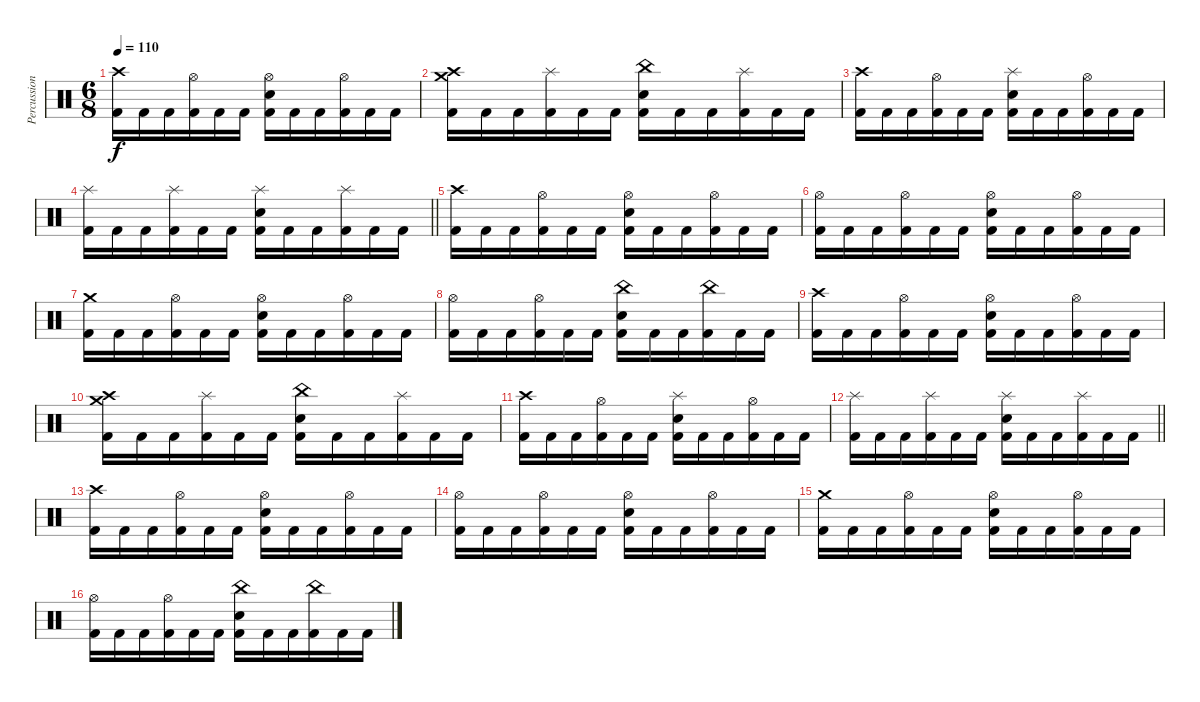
\track ("Percussion" "Percussion") {instrument percussion}
\staff {score}
\articulation defaults
\ts (6 8)
\tempo 110
\clef neutral
\ks c
("Crash high (hit)" "Kick (hit) 2").16{dy f} "Kick (hit) 2".16 "Kick (hit) 2".16 ("Hi-Hat (open)" "Kick (hit) 2").16 "Kick (hit) 2".16 "Kick (hit) 2".16 ("Hi-Hat (open)" "Electric Snare (hit)" "Kick (hit) 2").16 "Kick (hit) 2".16 "Kick (hit) 2".16 ("Hi-Hat (open)" "Kick (hit) 2").16 "Kick (hit) 2".16 "Kick (hit) 2".16 |
("Crash high (hit)" "Crash medium (hit)" "Kick (hit) 2").16 "Kick (hit) 2".16 "Kick (hit) 2".16 ("Splash (hit)" "Kick (hit) 2").16 "Kick (hit) 2".16 "Kick (hit) 2".16 ("China (hit)" "Electric Snare (hit)" "Kick (hit) 2").16 "Kick (hit) 2".16 "Kick (hit) 2".16 ("Splash (hit)" "Kick (hit) 2").16 "Kick (hit) 2".16 "Kick (hit) 2".16 |
("Crash high (hit)" "Kick (hit) 2").16 "Kick (hit) 2".16 "Kick (hit) 2".16 ("Hi-Hat (open)" "Kick (hit) 2").16 "Kick (hit) 2".16 "Kick (hit) 2".16 ("Splash (hit)" "Electric Snare (hit)" "Kick (hit) 2").16 "Kick (hit) 2".16 "Kick (hit) 2".16 ("Hi-Hat (open)" "Kick (hit) 2").16 "Kick (hit) 2".16 "Kick (hit) 2".16 |
\barLineRight lightlight
("Splash (hit)" "Kick (hit) 2").16 "Kick (hit) 2".16 "Kick (hit) 2".16 ("Splash (hit)" "Kick (hit) 2").16 "Kick (hit) 2".16 "Kick (hit) 2".16 ("Splash (hit)" "Electric Snare (hit)" "Kick (hit) 2").16 "Kick (hit) 2".16 "Kick (hit) 2".16 ("Splash (hit)" "Kick (hit) 2").16 "Kick (hit) 2".16 "Kick (hit) 2".16 |
("Crash high (hit)" "Kick (hit) 2").16 "Kick (hit) 2".16 "Kick (hit) 2".16 ("Hi-Hat (open)" "Kick (hit) 2").16 "Kick (hit) 2".16 "Kick (hit) 2".16 ("Hi-Hat (open)" "Electric Snare (hit)" "Kick (hit) 2").16 "Kick (hit) 2".16 "Kick (hit) 2".16 ("Hi-Hat (open)" "Kick (hit) 2").16 "Kick (hit) 2".16 "Kick (hit) 2".16 |
("Hi-Hat (open)" "Kick (hit) 2").16 "Kick (hit) 2".16 "Kick (hit) 2".16 ("Hi-Hat (open)" "Kick (hit) 2").16 "Kick (hit) 2".16 "Kick (hit) 2".16 ("Hi-Hat (open)" "Electric Snare (hit)" "Kick (hit) 2").16 "Kick (hit) 2".16 "Kick (hit) 2".16 ("Hi-Hat (open)" "Kick (hit) 2").16 "Kick (hit) 2".16 "Kick (hit) 2".16 |
("Crash medium (hit)" "Kick (hit) 2").16 "Kick (hit) 2".16 "Kick (hit) 2".16 ("Hi-Hat (open)" "Kick (hit) 2").16 "Kick (hit) 2".16 "Kick (hit) 2".16 ("Hi-Hat (open)" "Electric Snare (hit)" "Kick (hit) 2").16 "Kick (hit) 2".16 "Kick (hit) 2".16 ("Hi-Hat (open)" "Kick (hit) 2").16 "Kick (hit) 2".16 "Kick (hit) 2".16 |
("Hi-Hat (open)" "Kick (hit) 2").16 "Kick (hit) 2".16 "Kick (hit) 2".16 ("Hi-Hat (open)" "Kick (hit) 2").16 "Kick (hit) 2".16 "Kick (hit) 2".16 ("China (hit)" "Electric Snare (hit)" "Kick (hit) 2").16 "Kick (hit) 2".16 "Kick (hit) 2".16 ("China (hit)" "Kick (hit) 2").16 "Kick (hit) 2".16 "Kick (hit) 2".16 |
("Crash high (hit)" "Kick (hit) 2").16 "Kick (hit) 2".16 "Kick (hit) 2".16 ("Hi-Hat (open)" "Kick (hit) 2").16 "Kick (hit) 2".16 "Kick (hit) 2".16 ("Hi-Hat (open)" "Electric Snare (hit)" "Kick (hit) 2").16 "Kick (hit) 2".16 "Kick (hit) 2".16 ("Hi-Hat (open)" "Kick (hit) 2").16 "Kick (hit) 2".16 "Kick (hit) 2".16 |
("Crash high (hit)" "Crash medium (hit)" "Kick (hit) 2").16 "Kick (hit) 2".16 "Kick (hit) 2".16 ("Splash (hit)" "Kick (hit) 2").16 "Kick (hit) 2".16 "Kick (hit) 2".16 ("China (hit)" "Electric Snare (hit)" "Kick (hit) 2").16 "Kick (hit) 2".16 "Kick (hit) 2".16 ("Splash (hit)" "Kick (hit) 2").16 "Kick (hit) 2".16 "Kick (hit) 2".16 |
("Crash high (hit)" "Kick (hit) 2").16 "Kick (hit) 2".16 "Kick (hit) 2".16 ("Hi-Hat (open)" "Kick (hit) 2").16 "Kick (hit) 2".16 "Kick (hit) 2".16 ("Splash (hit)" "Electric Snare (hit)" "Kick (hit) 2").16 "Kick (hit) 2".16 "Kick (hit) 2".16 ("Hi-Hat (open)" "Kick (hit) 2").16 "Kick (hit) 2".16 "Kick (hit) 2".16 |
\barLineRight lightlight
("Splash (hit)" "Kick (hit) 2").16 "Kick (hit) 2".16 "Kick (hit) 2".16 ("Splash (hit)" "Kick (hit) 2").16 "Kick (hit) 2".16 "Kick (hit) 2".16 ("Splash (hit)" "Electric Snare (hit)" "Kick (hit) 2").16 "Kick (hit) 2".16 "Kick (hit) 2".16 ("Splash (hit)" "Kick (hit) 2").16 "Kick (hit) 2".16 "Kick (hit) 2".16 |
("Crash high (hit)" "Kick (hit) 2").16 "Kick (hit) 2".16 "Kick (hit) 2".16 ("Hi-Hat (open)" "Kick (hit) 2").16 "Kick (hit) 2".16 "Kick (hit) 2".16 ("Hi-Hat (open)" "Electric Snare (hit)" "Kick (hit) 2").16 "Kick (hit) 2".16 "Kick (hit) 2".16 ("Hi-Hat (open)" "Kick (hit) 2").16 "Kick (hit) 2".16 "Kick (hit) 2".16 |
("Hi-Hat (open)" "Kick (hit) 2").16 "Kick (hit) 2".16 "Kick (hit) 2".16 ("Hi-Hat (open)" "Kick (hit) 2").16 "Kick (hit) 2".16 "Kick (hit) 2".16 ("Hi-Hat (open)" "Electric Snare (hit)" "Kick (hit) 2").16 "Kick (hit) 2".16 "Kick (hit) 2".16 ("Hi-Hat (open)" "Kick (hit) 2").16 "Kick (hit) 2".16 "Kick (hit) 2".16 |
("Crash medium (hit)" "Kick (hit) 2").16 "Kick (hit) 2".16 "Kick (hit) 2".16 ("Hi-Hat (open)" "Kick (hit) 2").16 "Kick (hit) 2".16 "Kick (hit) 2".16 ("Hi-Hat (open)" "Electric Snare (hit)" "Kick (hit) 2").16 "Kick (hit) 2".16 "Kick (hit) 2".16 ("Hi-Hat (open)" "Kick (hit) 2").16 "Kick (hit) 2".16 "Kick (hit) 2".16 |
("Hi-Hat (open)" "Kick (hit) 2").16 "Kick (hit) 2".16 "Kick (hit) 2".16 ("Hi-Hat (open)" "Kick (hit) 2").16 "Kick (hit) 2".16 "Kick (hit) 2".16 ("China (hit)" "Electric Snare (hit)" "Kick (hit) 2").16 "Kick (hit) 2".16 "Kick (hit) 2".16 ("China (hit)" "Kick (hit) 2").16 "Kick (hit) 2".16 "Kick (hit) 2".16
